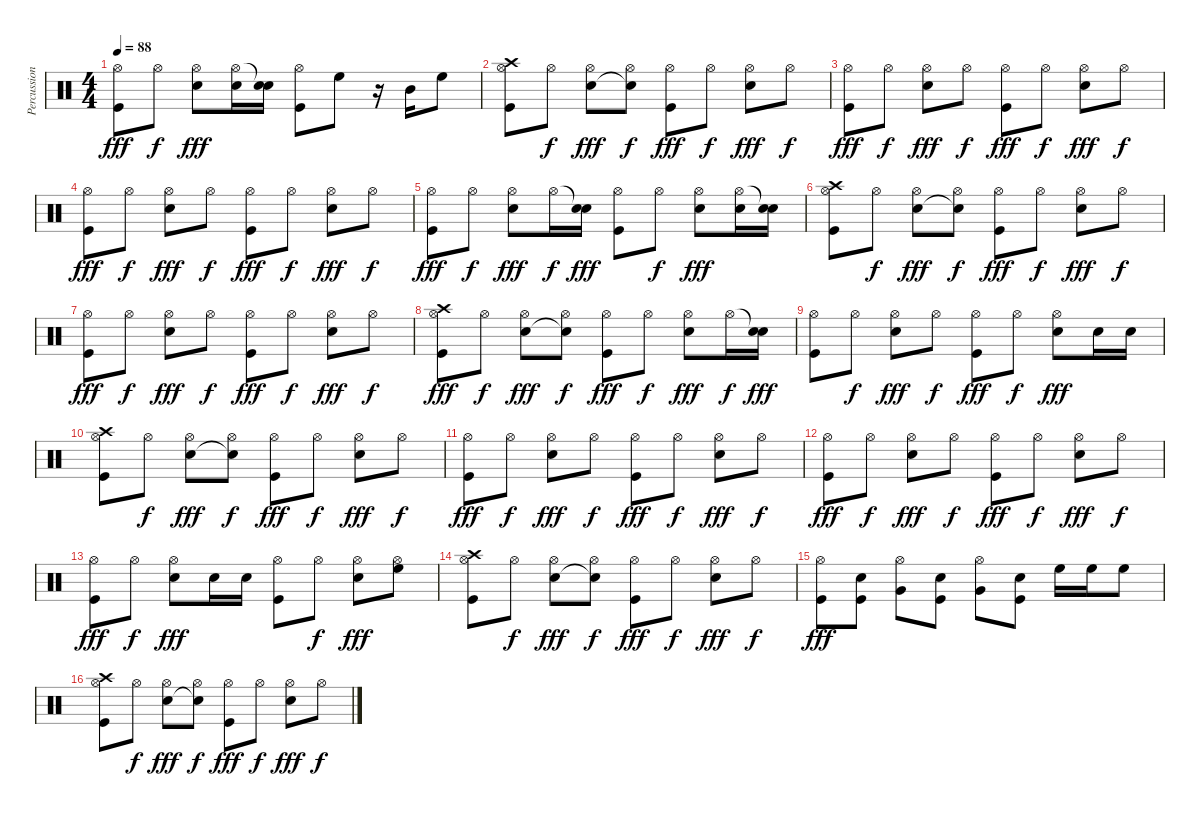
\track ("Percussions" "Percussion") {instrument percussion}
\staff {score}
\articulation defaults
\ts (4 4)
\tempo 88
\clef neutral
\ks c
("Hi-Hat (open)" "Kick (hit)").8{dy fff} "Hi-Hat (open)".8{dy f} ("Hi-Hat (open)" "Snare (hit) 2").8{dy fff} ("Hi-Hat (open)" "Snare (hit) 2").16 ("Snare (hit)"{t} "Snare (hit) 2").16 ("Hi-Hat (open)" "Kick (hit)").8 "High Floor Tom (hit)".8 r.16 "Mid Tom (hit)".16 "High Floor Tom (hit)".8 |
("Hi-Hat (open)" "Kick (hit)" "Crash high (hit)").8 "Hi-Hat (open)".8{dy f} ("Hi-Hat (open)" "Snare (hit) 2").8{dy fff} ("Hi-Hat (open)" "Snare (hit)"{t}).8{dy f} ("Hi-Hat (open)" "Kick (hit)").8{dy fff} "Hi-Hat (open)".8{dy f} ("Hi-Hat (open)" "Snare (hit) 2").8{dy fff} "Hi-Hat (open)".8{dy f} |
("Hi-Hat (open)" "Kick (hit)").8{dy fff} "Hi-Hat (open)".8{dy f} ("Hi-Hat (open)" "Snare (hit) 2").8{dy fff} "Hi-Hat (open)".8{dy f} ("Hi-Hat (open)" "Kick (hit)").8{dy fff} "Hi-Hat (open)".8{dy f} ("Hi-Hat (open)" "Snare (hit) 2").8{dy fff} "Hi-Hat (open)".8{dy f} |
("Hi-Hat (open)" "Kick (hit)").8{dy fff} "Hi-Hat (open)".8{dy f} ("Hi-Hat (open)" "Snare (hit) 2").8{dy fff} "Hi-Hat (open)".8{dy f} ("Hi-Hat (open)" "Kick (hit)").8{dy fff} "Hi-Hat (open)".8{dy f} ("Hi-Hat (open)" "Snare (hit) 2").8{dy fff} "Hi-Hat (open)".8{dy f} |
("Hi-Hat (open)" "Kick (hit)").8{dy fff} "Hi-Hat (open)".8{dy f} ("Hi-Hat (open)" "Snare (hit) 2").8{dy fff} "Hi-Hat (open)".16{dy f} ("Snare (hit)"{t} "Snare (hit) 2").16{dy fff} ("Hi-Hat (open)" "Kick (hit)").8 "Hi-Hat (open)".8{dy f} ("Hi-Hat (open)" "Snare (hit) 2").8{dy fff} ("Hi-Hat (open)" "Snare (hit) 2").16 ("Snare (hit)"{t} "Snare (hit) 2").16 |
("Hi-Hat (open)" "Kick (hit)" "Crash high (hit)").8 "Hi-Hat (open)".8{dy f} ("Hi-Hat (open)" "Snare (hit) 2").8{dy fff} ("Hi-Hat (open)" "Snare (hit)"{t}).8{dy f} ("Hi-Hat (open)" "Kick (hit)").8{dy fff} "Hi-Hat (open)".8{dy f} ("Hi-Hat (open)" "Snare (hit) 2").8{dy fff} "Hi-Hat (open)".8{dy f} |
("Hi-Hat (open)" "Kick (hit)").8{dy fff} "Hi-Hat (open)".8{dy f} ("Hi-Hat (open)" "Snare (hit) 2").8{dy fff} "Hi-Hat (open)".8{dy f} ("Hi-Hat (open)" "Kick (hit)").8{dy fff} "Hi-Hat (open)".8{dy f} ("Hi-Hat (open)" "Snare (hit) 2").8{dy fff} "Hi-Hat (open)".8{dy f} |
("Hi-Hat (open)" "Kick (hit)" "Crash high (hit)").8{dy fff} "Hi-Hat (open)".8{dy f} ("Hi-Hat (open)" "Snare (hit) 2").8{dy fff} ("Hi-Hat (open)" "Snare (hit)"{t}).8{dy f} ("Hi-Hat (open)" "Kick (hit)").8{dy fff} "Hi-Hat (open)".8{dy f} ("Hi-Hat (open)" "Snare (hit) 2").8{dy fff} "Hi-Hat (open)".16{dy f} ("Snare (hit)"{t} "Snare (hit) 2").16{dy fff} |
("Hi-Hat (open)" "Kick (hit)").8 "Hi-Hat (open)".8{dy f} ("Hi-Hat (open)" "Snare (hit) 2").8{dy fff} "Hi-Hat (open)".8{dy f} ("Hi-Hat (open)" "Kick (hit)").8{dy fff} "Hi-Hat (open)".8{dy f} ("Hi-Hat (open)" "Snare (hit) 2").8{dy fff} "Snare (hit) 2".16 "Snare (hit) 2".16 |
("Hi-Hat (open)" "Kick (hit)" "Crash high (hit)").8 "Hi-Hat (open)".8{dy f} ("Hi-Hat (open)" "Snare (hit) 2").8{dy fff} ("Hi-Hat (open)" "Snare (hit)"{t}).8{dy f} ("Hi-Hat (open)" "Kick (hit)").8{dy fff} "Hi-Hat (open)".8{dy f} ("Hi-Hat (open)" "Snare (hit) 2").8{dy fff} "Hi-Hat (open)".8{dy f} |
("Hi-Hat (open)" "Kick (hit)").8{dy fff} "Hi-Hat (open)".8{dy f} ("Hi-Hat (open)" "Snare (hit) 2").8{dy fff} "Hi-Hat (open)".8{dy f} ("Hi-Hat (open)" "Kick (hit)").8{dy fff} "Hi-Hat (open)".8{dy f} ("Hi-Hat (open)" "Snare (hit) 2").8{dy fff} "Hi-Hat (open)".8{dy f} |
("Hi-Hat (open)" "Kick (hit)").8{dy fff} "Hi-Hat (open)".8{dy f} ("Hi-Hat (open)" "Snare (hit) 2").8{dy fff} "Hi-Hat (open)".8{dy f} ("Hi-Hat (open)" "Kick (hit)").8{dy fff} "Hi-Hat (open)".8{dy f} ("Hi-Hat (open)" "Snare (hit) 2").8{dy fff} "Hi-Hat (open)".8{dy f} |
("Hi-Hat (open)" "Kick (hit)").8{dy fff} "Hi-Hat (open)".8{dy f} ("Hi-Hat (open)" "Snare (hit) 2").8{dy fff} "Snare (hit) 2".16 "Snare (hit) 2".16 ("Hi-Hat (open)" "Kick (hit)").8 "Hi-Hat (open)".8{dy f} ("Hi-Hat (open)" "Snare (hit) 2").8{dy fff} ("Hi-Hat (open)" "High Floor Tom (hit)").8 |
("Hi-Hat (open)" "Kick (hit)" "Crash high (hit)").8 "Hi-Hat (open)".8{dy f} ("Hi-Hat (open)" "Snare (hit) 2").8{dy fff} ("Hi-Hat (open)" "Snare (hit)"{t}).8{dy f} ("Hi-Hat (open)" "Kick (hit)").8{dy fff} "Hi-Hat (open)".8{dy f} ("Hi-Hat (open)" "Snare (hit) 2").8{dy fff} "Hi-Hat (open)".8{dy f} |
("Hi-Hat (open)" "Kick (hit)").8{dy fff} ("Snare (hit) 2" "Kick (hit)").8 ("Hi-Hat (open)" "Very Low Tom (hit)").8 ("Snare (hit) 2" "Kick (hit)").8 ("Hi-Hat (open)" "Very Low Tom (hit)").8 ("Snare (hit) 2" "Kick (hit)").8 "High Floor Tom (hit)".16 "High Floor Tom (hit)".16 "High Floor Tom (hit)".8 |
("Hi-Hat (open)" "Kick (hit)" "Crash high (hit)").8 "Hi-Hat (open)".8{dy f} ("Hi-Hat (open)" "Snare (hit) 2").8{dy fff} ("Hi-Hat (open)" "Snare (hit)"{t}).8{dy f} ("Hi-Hat (open)" "Kick (hit)").8{dy fff} "Hi-Hat (open)".8{dy f} ("Hi-Hat (open)" "Snare (hit) 2").8{dy fff} "Hi-Hat (open)".8{dy f}
